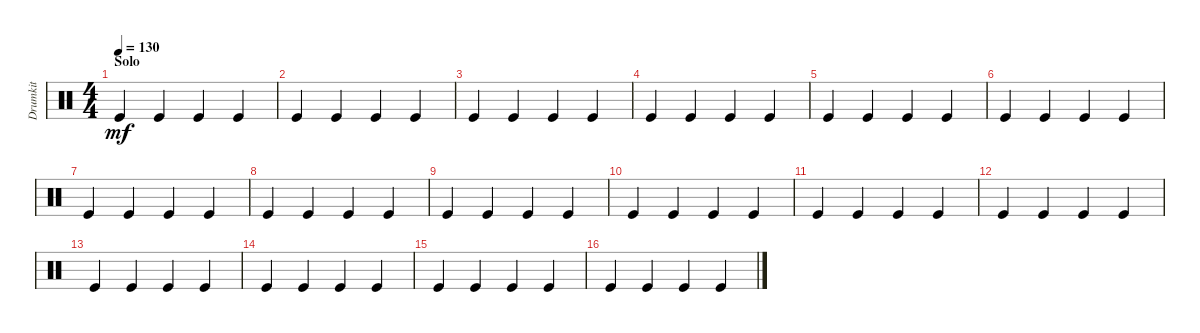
\track ("Drumkit" "Drumkit") {instrument percussion}
\staff {score}
\articulation defaults
\ts (4 4)
\section ("" "Solo")
\tempo 130
\clef neutral
\ks c "Kick (hit)".4{dy mf} "Kick (hit)".4 "Kick (hit)".4 "Kick (hit)".4
|
"Kick (hit)".4 "Kick (hit)".4 "Kick (hit)".4 "Kick (hit)".4 |
"Kick (hit)".4 "Kick (hit)".4 "Kick (hit)".4 "Kick (hit)".4 |
"Kick (hit)".4 "Kick (hit)".4 "Kick (hit)".4 "Kick (hit)".4 |
"Kick (hit)".4 "Kick (hit)".4 "Kick (hit)".4 "Kick (hit)".4 |
"Kick (hit)".4 "Kick (hit)".4 "Kick (hit)".4 "Kick (hit)".4 |
"Kick (hit)".4 "Kick (hit)".4 "Kick (hit)".4 "Kick (hit)".4 |
"Kick (hit)".4 "Kick (hit)".4 "Kick (hit)".4 "Kick (hit)".4 |
"Kick (hit)".4 "Kick (hit)".4 "Kick (hit)".4 "Kick (hit)".4 |
"Kick (hit)".4 "Kick (hit)".4 "Kick (hit)".4 "Kick (hit)".4 |
"Kick (hit)".4 "Kick (hit)".4 "Kick (hit)".4 "Kick (hit)".4 |
"Kick (hit)".4 "Kick (hit)".4 "Kick (hit)".4 "Kick (hit)".4 |
"Kick (hit)".4 "Kick (hit)".4 "Kick (hit)".4 "Kick (hit)".4 |
"Kick (hit)".4 "Kick (hit)".4 "Kick (hit)".4 "Kick (hit)".4 |
"Kick (hit)".4 "Kick (hit)".4 "Kick (hit)".4 "Kick (hit)".4 |
"Kick (hit)".4 "Kick (hit)".4 "Kick (hit)".4 "Kick (hit)".4
